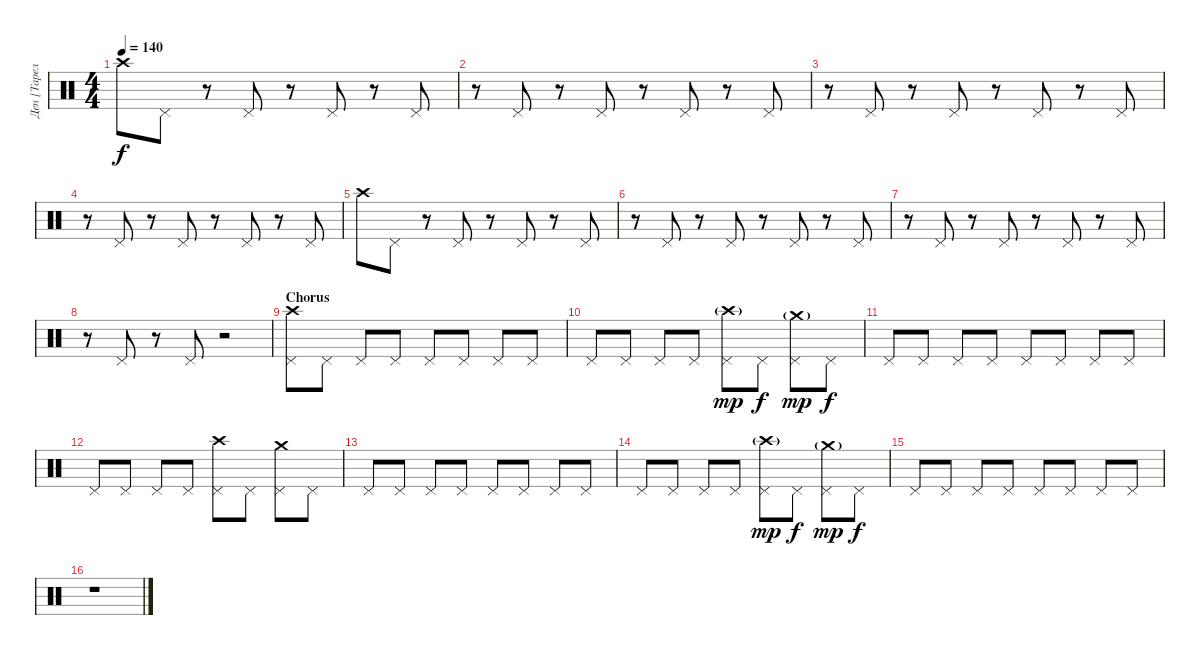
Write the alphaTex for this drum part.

\track ("Ден [Тарелки]" "Ден [Тарел") {instrument percussion}
\staff {score}
\articulation defaults
\ts (4 4)
\tempo 140
\clef neutral
\ks c "Crash high (hit)".8{dy f} "Pedal Hi-Hat (hit)".8
r.8 "Pedal Hi-Hat (hit)".8 r.8 "Pedal Hi-Hat (hit)".8 r.8 "Pedal Hi-Hat (hit)".8 |
r.8 "Pedal Hi-Hat (hit)".8 r.8 "Pedal Hi-Hat (hit)".8 r.8 "Pedal Hi-Hat (hit)".8 r.8 "Pedal Hi-Hat (hit)".8 |
r.8 "Pedal Hi-Hat (hit)".8 r.8 "Pedal Hi-Hat (hit)".8 r.8 "Pedal Hi-Hat (hit)".8 r.8 "Pedal Hi-Hat (hit)".8 |
r.8 "Pedal Hi-Hat (hit)".8 r.8 "Pedal Hi-Hat (hit)".8 r.8 "Pedal Hi-Hat (hit)".8 r.8 "Pedal Hi-Hat (hit)".8 |
"Crash high (hit)".8 "Pedal Hi-Hat (hit)".8 r.8 "Pedal Hi-Hat (hit)".8 r.8 "Pedal Hi-Hat (hit)".8 r.8 "Pedal Hi-Hat (hit)".8 |
r.8 "Pedal Hi-Hat (hit)".8 r.8 "Pedal Hi-Hat (hit)".8 r.8 "Pedal Hi-Hat (hit)".8 r.8 "Pedal Hi-Hat (hit)".8 |
r.8 "Pedal Hi-Hat (hit)".8 r.8 "Pedal Hi-Hat (hit)".8 r.8 "Pedal Hi-Hat (hit)".8 r.8 "Pedal Hi-Hat (hit)".8 |
r.8 "Pedal Hi-Hat (hit)".8 r.8 "Pedal Hi-Hat (hit)".8 r.2 |
\section ("" "Chorus")
("Crash high (hit)" "Pedal Hi-Hat (hit)").8 "Pedal Hi-Hat (hit)".8 "Pedal Hi-Hat (hit)".8 "Pedal Hi-Hat (hit)".8 "Pedal Hi-Hat (hit)".8 "Pedal Hi-Hat (hit)".8 "Pedal Hi-Hat (hit)".8 "Pedal Hi-Hat (hit)".8 |
"Pedal Hi-Hat (hit)".8 "Pedal Hi-Hat (hit)".8 "Pedal Hi-Hat (hit)".8 "Pedal Hi-Hat (hit)".8 ("Crash high (hit)"{g} "Pedal Hi-Hat (hit)"{tr (44 32)}).8{dy mp} "Pedal Hi-Hat (hit)".8{dy f} ("Crash medium (hit)"{g} "Pedal Hi-Hat (hit)"{tr (44 32)}).8{dy mp} "Pedal Hi-Hat (hit)".8{dy f} |
"Pedal Hi-Hat (hit)".8 "Pedal Hi-Hat (hit)".8 "Pedal Hi-Hat (hit)".8 "Pedal Hi-Hat (hit)".8 "Pedal Hi-Hat (hit)".8 "Pedal Hi-Hat (hit)".8 "Pedal Hi-Hat (hit)".8 "Pedal Hi-Hat (hit)".8 |
"Pedal Hi-Hat (hit)".8 "Pedal Hi-Hat (hit)".8 "Pedal Hi-Hat (hit)".8 "Pedal Hi-Hat (hit)".8 ("Crash high (hit)" "Pedal Hi-Hat (hit)").8 "Pedal Hi-Hat (hit)".8 ("Crash medium (hit)" "Pedal Hi-Hat (hit)").8 "Pedal Hi-Hat (hit)".8 |
"Pedal Hi-Hat (hit)".8 "Pedal Hi-Hat (hit)".8 "Pedal Hi-Hat (hit)".8 "Pedal Hi-Hat (hit)".8 "Pedal Hi-Hat (hit)".8 "Pedal Hi-Hat (hit)".8 "Pedal Hi-Hat (hit)".8 "Pedal Hi-Hat (hit)".8 |
"Pedal Hi-Hat (hit)".8 "Pedal Hi-Hat (hit)".8 "Pedal Hi-Hat (hit)".8 "Pedal Hi-Hat (hit)".8 ("Crash high (hit)"{g} "Pedal Hi-Hat (hit)"{tr (44 32)}).8{dy mp} "Pedal Hi-Hat (hit)".8{dy f} ("Crash medium (hit)"{g} "Pedal Hi-Hat (hit)"{tr (44 32)}).8{dy mp} "Pedal Hi-Hat (hit)".8{dy f} |
"Pedal Hi-Hat (hit)".8 "Pedal Hi-Hat (hit)".8 "Pedal Hi-Hat (hit)".8 "Pedal Hi-Hat (hit)".8 "Pedal Hi-Hat (hit)".8 "Pedal Hi-Hat (hit)".8 "Pedal Hi-Hat (hit)".8 "Pedal Hi-Hat (hit)".8 |
r.1
